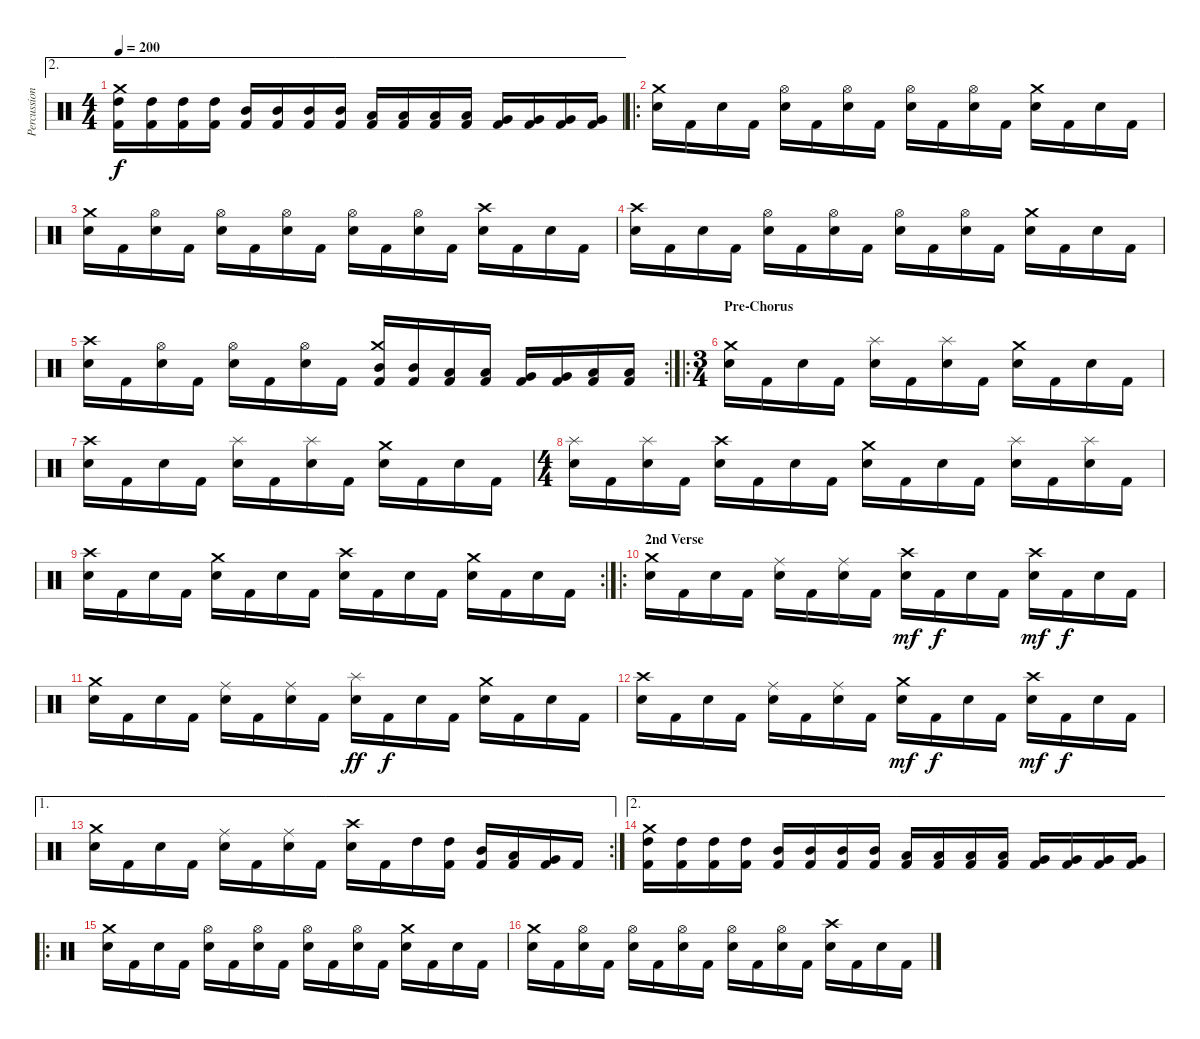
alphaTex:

\track ("Percussion" "Percussion") {instrument percussion}
\staff {score}
\articulation defaults
\ae 2
\ts (4 4)
\tempo 200
\clef neutral
\ks c
("Kick (hit) 2" "High Tom (hit)" "Crash medium (hit)").16{dy f} ("Kick (hit) 2" "High Tom (hit)").16 ("Kick (hit) 2" "High Tom (hit)").16 ("Kick (hit) 2" "High Tom (hit)").16 ("Kick (hit) 2" "Mid Tom (hit)").16 ("Kick (hit) 2" "Mid Tom (hit)").16 ("Kick (hit) 2" "Mid Tom (hit)").16 ("Kick (hit) 2" "Mid Tom (hit)").16 ("Kick (hit) 2" "Low Tom (hit)").16 ("Kick (hit) 2" "Low Tom (hit)").16 ("Kick (hit) 2" "Low Tom (hit)").16 ("Kick (hit) 2" "Low Tom (hit)").16 ("Kick (hit) 2" "Very Low Tom (hit)").16 ("Kick (hit) 2" "Very Low Tom (hit)").16 ("Kick (hit) 2" "Very Low Tom (hit)").16 ("Kick (hit) 2" "Very Low Tom (hit)").16 |
\ro
("Snare (hit) 2" "Crash medium (hit)").16 "Kick (hit) 2".16 "Snare (hit) 2".16 "Kick (hit) 2".16 ("Snare (hit) 2" "Hi-Hat (open)").16 "Kick (hit) 2".16 ("Snare (hit) 2" "Hi-Hat (open)").16 "Kick (hit) 2".16 ("Snare (hit) 2" "Hi-Hat (open)").16 "Kick (hit) 2".16 ("Snare (hit) 2" "Hi-Hat (open)").16 "Kick (hit) 2".16 ("Snare (hit) 2" "Crash medium (hit)").16 "Kick (hit) 2".16 "Snare (hit) 2".16 "Kick (hit) 2".16 |
("Snare (hit) 2" "Crash medium (hit)").16 "Kick (hit) 2".16 ("Snare (hit) 2" "Hi-Hat (open)").16 "Kick (hit) 2".16 ("Snare (hit) 2" "Hi-Hat (open)").16 "Kick (hit) 2".16 ("Snare (hit) 2" "Hi-Hat (open)").16 "Kick (hit) 2".16 ("Snare (hit) 2" "Hi-Hat (open)").16 "Kick (hit) 2".16 ("Snare (hit) 2" "Hi-Hat (open)").16 "Kick (hit) 2".16 ("Snare (hit) 2" "Crash high (hit)").16 "Kick (hit) 2".16 "Snare (hit) 2".16 "Kick (hit) 2".16 |
("Snare (hit) 2" "Crash high (hit)").16 "Kick (hit) 2".16 "Snare (hit) 2".16 "Kick (hit) 2".16 ("Snare (hit) 2" "Hi-Hat (open)").16 "Kick (hit) 2".16 ("Snare (hit) 2" "Hi-Hat (open)").16 "Kick (hit) 2".16 ("Snare (hit) 2" "Hi-Hat (open)").16 "Kick (hit) 2".16 ("Snare (hit) 2" "Hi-Hat (open)").16 "Kick (hit) 2".16 ("Snare (hit) 2" "Crash medium (hit)").16 "Kick (hit) 2".16 "Snare (hit) 2".16 "Kick (hit) 2".16 |
\rc 2
("Snare (hit) 2" "Crash high (hit)").16 "Kick (hit) 2".16 ("Snare (hit) 2" "Hi-Hat (open)").16 "Kick (hit) 2".16 ("Snare (hit) 2" "Hi-Hat (open)").16 "Kick (hit) 2".16 ("Snare (hit) 2" "Hi-Hat (open)").16 "Kick (hit) 2".16 ("Kick (hit) 2" "Mid Tom (hit)" "Crash medium (hit)").16 ("Kick (hit) 2" "Mid Tom (hit)").16 ("Kick (hit) 2" "Low Tom (hit)").16 ("Kick (hit) 2" "Low Tom (hit)").16 ("Kick (hit) 2" "Very Low Tom (hit)").16 ("Kick (hit) 2" "Very Low Tom (hit)").16 ("Kick (hit) 2" "Low Floor Tom (hit)").16 ("Kick (hit) 2" "Low Floor Tom (hit)").16 |
\ro
\ts (3 4)
\section ("" "Pre-Chorus")
("Snare (hit) 2" "Crash medium (hit)").16 "Kick (hit) 2".16 "Snare (hit) 2".16 "Kick (hit) 2".16 ("Snare (hit) 2" "Splash (hit)").16 "Kick (hit) 2".16 ("Snare (hit) 2" "Splash (hit)").16 "Kick (hit) 2".16 ("Snare (hit) 2" "Crash medium (hit)").16 "Kick (hit) 2".16 "Snare (hit) 2".16 "Kick (hit) 2".16 |
("Snare (hit) 2" "Crash high (hit)").16 "Kick (hit) 2".16 "Snare (hit) 2".16 "Kick (hit) 2".16 ("Snare (hit) 2" "Splash (hit)").16 "Kick (hit) 2".16 ("Snare (hit) 2" "Splash (hit)").16 "Kick (hit) 2".16 ("Snare (hit) 2" "Crash medium (hit)").16 "Kick (hit) 2".16 "Snare (hit) 2".16 "Kick (hit) 2".16 |
\ts (4 4)
("Snare (hit) 2" "Splash (hit)").16 "Kick (hit) 2".16 ("Snare (hit) 2" "Splash (hit)").16 "Kick (hit) 2".16 ("Snare (hit) 2" "Crash high (hit)").16 "Kick (hit) 2".16 "Snare (hit) 2".16 "Kick (hit) 2".16 ("Snare (hit) 2" "Crash medium (hit)").16 "Kick (hit) 2".16 "Snare (hit) 2".16 "Kick (hit) 2".16 ("Snare (hit) 2" "Splash (hit)").16 "Kick (hit) 2".16 ("Snare (hit) 2" "Splash (hit)").16 "Kick (hit) 2".16 |
\rc 2
("Snare (hit) 2" "Crash high (hit)").16 "Kick (hit) 2".16 "Snare (hit) 2".16 "Kick (hit) 2".16 ("Snare (hit) 2" "Crash medium (hit)").16 "Kick (hit) 2".16 "Snare (hit) 2".16 "Kick (hit) 2".16 ("Snare (hit) 2" "Crash high (hit)").16 "Kick (hit) 2".16 "Snare (hit) 2".16 "Kick (hit) 2".16 ("Snare (hit) 2" "Crash medium (hit)").16 "Kick (hit) 2".16 "Snare (hit) 2".16 "Kick (hit) 2".16 |
\ro
\section ("" "2nd Verse")
("Snare (hit) 2" "Crash medium (hit)").16 "Kick (hit) 2".16 "Snare (hit) 2".16 "Kick (hit) 2".16 ("Snare (hit) 2" "Ride (middle)").16 "Kick (hit) 2".16 ("Snare (hit) 2" "Ride (middle)").16 "Kick (hit) 2".16 ("Snare (hit) 2" "Crash high (hit)").16{dy mf} "Kick (hit) 2".16{dy f} "Snare (hit) 2".16 "Kick (hit) 2".16 ("Snare (hit) 2" "Crash high (hit)").16{dy mf} "Kick (hit) 2".16{dy f} "Snare (hit) 2".16 "Kick (hit) 2".16 |
("Snare (hit) 2" "Crash medium (hit)").16 "Kick (hit) 2".16 "Snare (hit) 2".16 "Kick (hit) 2".16 ("Snare (hit) 2" "Ride (middle)").16 "Kick (hit) 2".16 ("Snare (hit) 2" "Ride (middle)").16 "Kick (hit) 2".16 ("Snare (hit) 2" "Splash (hit)").16{dy ff} "Kick (hit) 2".16{dy f} "Snare (hit) 2".16 "Kick (hit) 2".16 ("Snare (hit) 2" "Crash medium (hit)").16 "Kick (hit) 2".16 "Snare (hit) 2".16 "Kick (hit) 2".16 |
("Snare (hit) 2" "Crash high (hit)").16 "Kick (hit) 2".16 "Snare (hit) 2".16 "Kick (hit) 2".16 ("Snare (hit) 2" "Ride (middle)").16 "Kick (hit) 2".16 ("Snare (hit) 2" "Ride (middle)").16 "Kick (hit) 2".16 ("Snare (hit) 2" "Crash medium (hit)").16{dy mf} "Kick (hit) 2".16{dy f} "Snare (hit) 2".16 "Kick (hit) 2".16 ("Snare (hit) 2" "Crash high (hit)").16{dy mf} "Kick (hit) 2".16{dy f} "Snare (hit) 2".16 "Kick (hit) 2".16 |
\ae 1
\rc 2
("Snare (hit) 2" "Crash medium (hit)").16 "Kick (hit) 2".16 "Snare (hit) 2".16 "Kick (hit) 2".16 ("Snare (hit) 2" "Ride (middle)").16 "Kick (hit) 2".16 ("Snare (hit) 2" "Ride (middle)").16 "Kick (hit) 2".16 ("Snare (hit) 2" "Crash high (hit)").16 "Kick (hit) 2".16 "High Tom (hit)".16 ("Kick (hit) 2" "High Tom (hit)").16 ("Kick (hit) 2" "Mid Tom (hit)").16 ("Kick (hit) 2" "Low Tom (hit)").16 ("Kick (hit) 2" "Very Low Tom (hit)").16 "Kick (hit) 2".16 |
\ae 2
("Kick (hit) 2" "High Tom (hit)" "Crash medium (hit)").16 ("Kick (hit) 2" "High Tom (hit)").16 ("Kick (hit) 2" "High Tom (hit)").16 ("Kick (hit) 2" "High Tom (hit)").16 ("Kick (hit) 2" "Mid Tom (hit)").16 ("Kick (hit) 2" "Mid Tom (hit)").16 ("Kick (hit) 2" "Mid Tom (hit)").16 ("Kick (hit) 2" "Mid Tom (hit)").16 ("Kick (hit) 2" "Low Tom (hit)").16 ("Kick (hit) 2" "Low Tom (hit)").16 ("Kick (hit) 2" "Low Tom (hit)").16 ("Kick (hit) 2" "Low Tom (hit)").16 ("Kick (hit) 2" "Very Low Tom (hit)").16 ("Kick (hit) 2" "Very Low Tom (hit)").16 ("Kick (hit) 2" "Very Low Tom (hit)").16 ("Kick (hit) 2" "Very Low Tom (hit)").16 |
\ro
("Snare (hit) 2" "Crash medium (hit)").16 "Kick (hit) 2".16 "Snare (hit) 2".16 "Kick (hit) 2".16 ("Snare (hit) 2" "Hi-Hat (open)").16 "Kick (hit) 2".16 ("Snare (hit) 2" "Hi-Hat (open)").16 "Kick (hit) 2".16 ("Snare (hit) 2" "Hi-Hat (open)").16 "Kick (hit) 2".16 ("Snare (hit) 2" "Hi-Hat (open)").16 "Kick (hit) 2".16 ("Snare (hit) 2" "Crash medium (hit)").16 "Kick (hit) 2".16 "Snare (hit) 2".16 "Kick (hit) 2".16 |
("Snare (hit) 2" "Crash medium (hit)").16 "Kick (hit) 2".16 ("Snare (hit) 2" "Hi-Hat (open)").16 "Kick (hit) 2".16 ("Snare (hit) 2" "Hi-Hat (open)").16 "Kick (hit) 2".16 ("Snare (hit) 2" "Hi-Hat (open)").16 "Kick (hit) 2".16 ("Snare (hit) 2" "Hi-Hat (open)").16 "Kick (hit) 2".16 ("Snare (hit) 2" "Hi-Hat (open)").16 "Kick (hit) 2".16 ("Snare (hit) 2" "Crash high (hit)").16 "Kick (hit) 2".16 "Snare (hit) 2".16 "Kick (hit) 2".16
